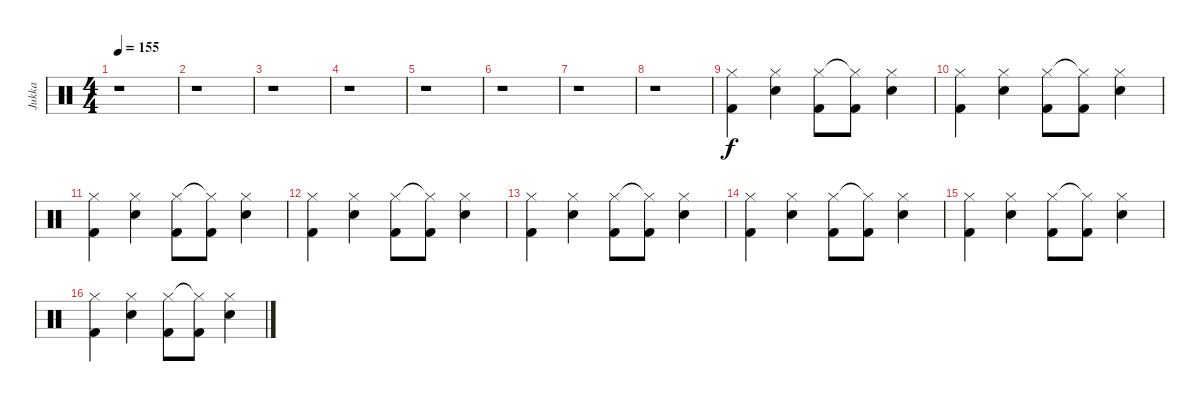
\track ("Jukka" "Jukka") {instrument percussion}
\staff {score}
\articulation defaults
\ts (4 4)
\tempo 155
\clef neutral
\ks c
r.1{dy f} |
r.1 |
r.1 |
r.1 |
r.1 |
r.1 |
r.1 |
r.1 |
("Hi-Hat (closed)" "Kick (hit) 2").4 ("Hi-Hat (closed)" "Snare (hit) 2").4 ("Hi-Hat (closed)" "Kick (hit) 2").8 ("Hi-Hat (closed)"{t} "Kick (hit) 2").8 ("Hi-Hat (closed)" "Snare (hit) 2").4 |
("Hi-Hat (closed)" "Kick (hit) 2").4 ("Hi-Hat (closed)" "Snare (hit) 2").4 ("Hi-Hat (closed)" "Kick (hit) 2").8 ("Hi-Hat (closed)"{t} "Kick (hit) 2").8 ("Hi-Hat (closed)" "Snare (hit) 2").4 |
("Hi-Hat (closed)" "Kick (hit) 2").4 ("Hi-Hat (closed)" "Snare (hit) 2").4 ("Hi-Hat (closed)" "Kick (hit) 2").8 ("Hi-Hat (closed)"{t} "Kick (hit) 2").8 ("Hi-Hat (closed)" "Snare (hit) 2").4 |
("Hi-Hat (closed)" "Kick (hit) 2").4 ("Hi-Hat (closed)" "Snare (hit) 2").4 ("Hi-Hat (closed)" "Kick (hit) 2").8 ("Hi-Hat (closed)"{t} "Kick (hit) 2").8 ("Hi-Hat (closed)" "Snare (hit) 2").4 |
("Hi-Hat (closed)" "Kick (hit) 2").4 ("Hi-Hat (closed)" "Snare (hit) 2").4 ("Hi-Hat (closed)" "Kick (hit) 2").8 ("Hi-Hat (closed)"{t} "Kick (hit) 2").8 ("Hi-Hat (closed)" "Snare (hit) 2").4 |
("Hi-Hat (closed)" "Kick (hit) 2").4 ("Hi-Hat (closed)" "Snare (hit) 2").4 ("Hi-Hat (closed)" "Kick (hit) 2").8 ("Hi-Hat (closed)"{t} "Kick (hit) 2").8 ("Hi-Hat (closed)" "Snare (hit) 2").4 |
("Hi-Hat (closed)" "Kick (hit) 2").4 ("Hi-Hat (closed)" "Snare (hit) 2").4 ("Hi-Hat (closed)" "Kick (hit) 2").8 ("Hi-Hat (closed)"{t} "Kick (hit) 2").8 ("Hi-Hat (closed)" "Snare (hit) 2").4 |
("Hi-Hat (closed)" "Kick (hit) 2").4 ("Hi-Hat (closed)" "Snare (hit) 2").4 ("Hi-Hat (closed)" "Kick (hit) 2").8 ("Hi-Hat (closed)"{t} "Kick (hit) 2").8 ("Hi-Hat (closed)" "Snare (hit) 2").4
